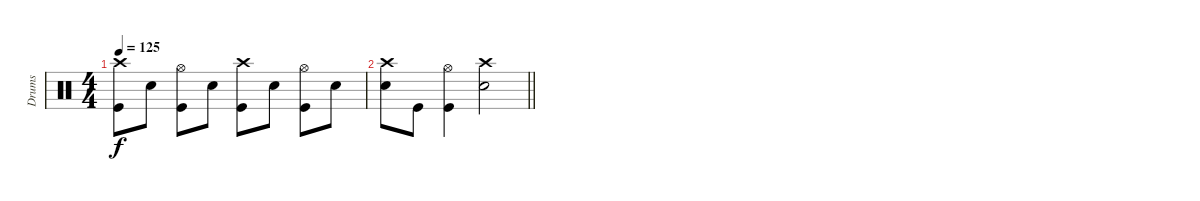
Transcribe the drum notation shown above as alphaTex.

\track ("Drums" "Drums") {instrument percussion}
\staff
\articulation defaults
\ts (4 4)
\tempo 125
\clef neutral
\ks c
("Crash high (hit)" "Kick (hit)").8{dy f} "Electric Snare (hit)".8 ("Hi-Hat (open)" "Kick (hit)").8 "Electric Snare (hit)".8 ("Crash high (hit)" "Kick (hit)").8 "Electric Snare (hit)".8 ("Hi-Hat (open)" "Kick (hit)").8 "Electric Snare (hit)".8 |
\barLineRight lightlight
("Crash high (hit)" "Electric Snare (hit)").8 "Kick (hit)".8 ("Hi-Hat (open)" "Kick (hit)").4 ("Crash high (hit)" "Electric Snare (hit)").2
